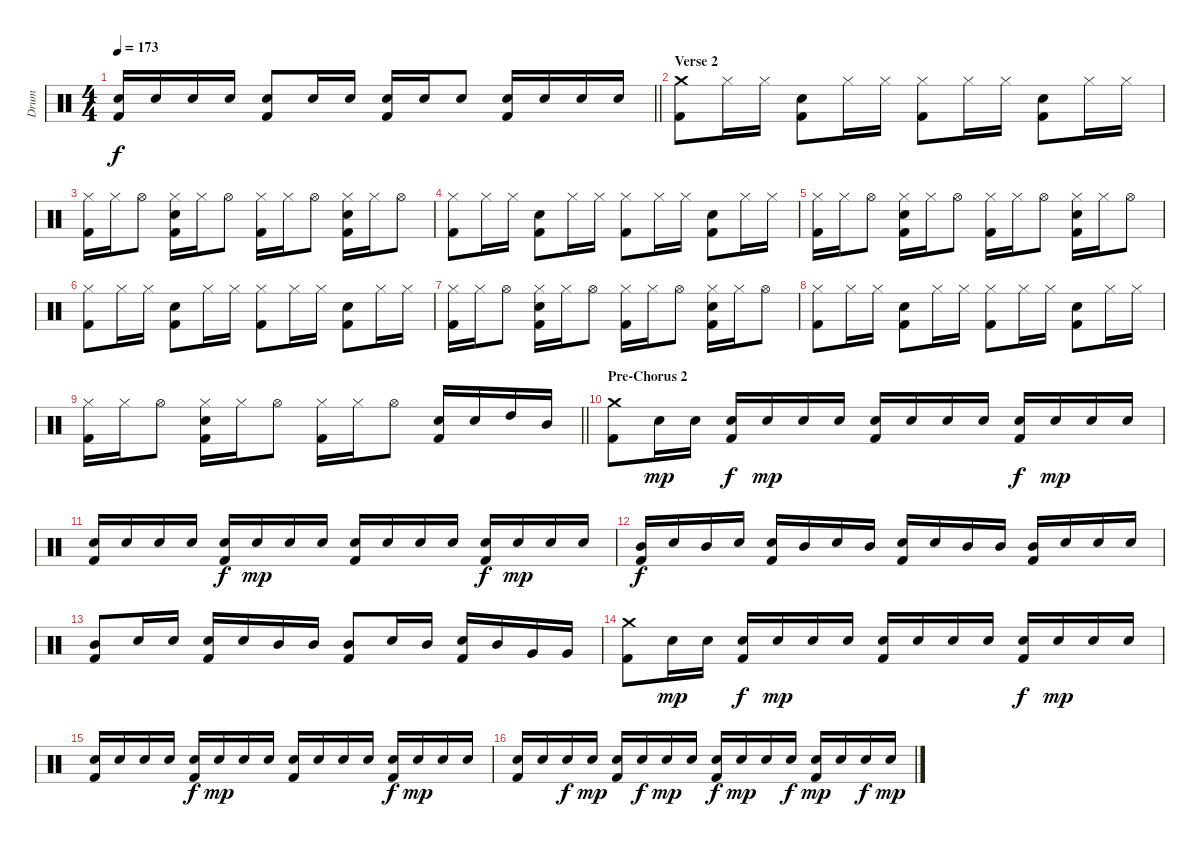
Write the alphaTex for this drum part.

\track ("Drum" "Drum") {instrument percussion}
\staff {score}
\articulation defaults
\ts (4 4)
\tempo 173
\clef neutral
\barLineRight lightlight
\ks c
("Kick (hit) 2" "Snare (hit) 2").16{dy f} "Snare (hit) 2".16 "Snare (hit) 2".16 "Snare (hit) 2".16 ("Kick (hit) 2" "Snare (hit) 2").8 "Snare (hit) 2".16 "Snare (hit) 2".16 ("Kick (hit) 2" "Snare (hit) 2").16 "Snare (hit) 2".16 "Snare (hit) 2".8 ("Kick (hit) 2" "Snare (hit) 2").16 "Snare (hit) 2".16 "Snare (hit) 2".16 "Snare (hit) 2".16 |
\section ("" "Verse 2")
("Crash medium (hit)" "Kick (hit) 2").8 "Hi-Hat (closed)".16 "Hi-Hat (closed)".16 ("Kick (hit) 2" "Snare (hit) 2").8 "Hi-Hat (closed)".16 "Hi-Hat (closed)".16 ("Hi-Hat (closed)" "Kick (hit) 2").8 "Hi-Hat (closed)".16 "Hi-Hat (closed)".16 ("Kick (hit) 2" "Snare (hit) 2").8 "Hi-Hat (closed)".16 "Hi-Hat (closed)".16 |
("Hi-Hat (closed)" "Kick (hit) 2").16 "Hi-Hat (closed)".16 "Hi-Hat (open)".8 ("Hi-Hat (closed)" "Kick (hit) 2" "Snare (hit) 2").16 "Hi-Hat (closed)".16 "Hi-Hat (open)".8 ("Hi-Hat (closed)" "Kick (hit) 2").16 "Hi-Hat (closed)".16 "Hi-Hat (open)".8 ("Hi-Hat (closed)" "Kick (hit) 2" "Snare (hit) 2").16 "Hi-Hat (closed)".16 "Hi-Hat (open)".8 |
("Hi-Hat (closed)" "Kick (hit) 2").8 "Hi-Hat (closed)".16 "Hi-Hat (closed)".16 ("Kick (hit) 2" "Snare (hit) 2").8 "Hi-Hat (closed)".16 "Hi-Hat (closed)".16 ("Hi-Hat (closed)" "Kick (hit) 2").8 "Hi-Hat (closed)".16 "Hi-Hat (closed)".16 ("Kick (hit) 2" "Snare (hit) 2").8 "Hi-Hat (closed)".16 "Hi-Hat (closed)".16 |
("Hi-Hat (closed)" "Kick (hit) 2").16 "Hi-Hat (closed)".16 "Hi-Hat (open)".8 ("Hi-Hat (closed)" "Kick (hit) 2" "Snare (hit) 2").16 "Hi-Hat (closed)".16 "Hi-Hat (open)".8 ("Hi-Hat (closed)" "Kick (hit) 2").16 "Hi-Hat (closed)".16 "Hi-Hat (open)".8 ("Hi-Hat (closed)" "Kick (hit) 2" "Snare (hit) 2").16 "Hi-Hat (closed)".16 "Hi-Hat (open)".8 |
("Hi-Hat (closed)" "Kick (hit) 2").8 "Hi-Hat (closed)".16 "Hi-Hat (closed)".16 ("Kick (hit) 2" "Snare (hit) 2").8 "Hi-Hat (closed)".16 "Hi-Hat (closed)".16 ("Hi-Hat (closed)" "Kick (hit) 2").8 "Hi-Hat (closed)".16 "Hi-Hat (closed)".16 ("Kick (hit) 2" "Snare (hit) 2").8 "Hi-Hat (closed)".16 "Hi-Hat (closed)".16 |
("Hi-Hat (closed)" "Kick (hit) 2").16 "Hi-Hat (closed)".16 "Hi-Hat (open)".8 ("Hi-Hat (closed)" "Kick (hit) 2" "Snare (hit) 2").16 "Hi-Hat (closed)".16 "Hi-Hat (open)".8 ("Hi-Hat (closed)" "Kick (hit) 2").16 "Hi-Hat (closed)".16 "Hi-Hat (open)".8 ("Hi-Hat (closed)" "Kick (hit) 2" "Snare (hit) 2").16 "Hi-Hat (closed)".16 "Hi-Hat (open)".8 |
("Hi-Hat (closed)" "Kick (hit) 2").8 "Hi-Hat (closed)".16 "Hi-Hat (closed)".16 ("Kick (hit) 2" "Snare (hit) 2").8 "Hi-Hat (closed)".16 "Hi-Hat (closed)".16 ("Hi-Hat (closed)" "Kick (hit) 2").8 "Hi-Hat (closed)".16 "Hi-Hat (closed)".16 ("Kick (hit) 2" "Snare (hit) 2").8 "Hi-Hat (closed)".16 "Hi-Hat (closed)".16 |
\barLineRight lightlight
("Hi-Hat (closed)" "Kick (hit) 2").16 "Hi-Hat (closed)".16 "Hi-Hat (open)".8 ("Hi-Hat (closed)" "Kick (hit) 2" "Snare (hit) 2").16 "Hi-Hat (closed)".16 "Hi-Hat (open)".8 ("Hi-Hat (closed)" "Kick (hit) 2").16 "Hi-Hat (closed)".16 "Hi-Hat (open)".8 ("Snare (hit) 2" "Kick (hit) 2").16 "Snare (hit) 2".16 "High Tom (hit)".16 "Mid Tom (hit)".16 |
\section ("" "Pre-Chorus 2")
("Crash medium (hit)" "Kick (hit) 2").8 "Snare (hit) 2".16{dy mp} "Snare (hit) 2".16 ("Snare (hit) 2" "Kick (hit) 2").16{dy f} "Snare (hit) 2".16{dy mp} "Snare (hit) 2".16 "Snare (hit) 2".16 ("Snare (hit) 2" "Kick (hit) 2").16 "Snare (hit) 2".16 "Snare (hit) 2".16 "Snare (hit) 2".16 ("Snare (hit) 2" "Kick (hit) 2").16{dy f} "Snare (hit) 2".16{dy mp} "Snare (hit) 2".16 "Snare (hit) 2".16 |
("Snare (hit) 2" "Kick (hit) 2").16 "Snare (hit) 2".16 "Snare (hit) 2".16 "Snare (hit) 2".16 ("Snare (hit) 2" "Kick (hit) 2").16{dy f} "Snare (hit) 2".16{dy mp} "Snare (hit) 2".16 "Snare (hit) 2".16 ("Snare (hit) 2" "Kick (hit) 2").16 "Snare (hit) 2".16 "Snare (hit) 2".16 "Snare (hit) 2".16 ("Snare (hit) 2" "Kick (hit) 2").16{dy f} "Snare (hit) 2".16{dy mp} "Snare (hit) 2".16 "Snare (hit) 2".16 |
("Kick (hit) 2" "Mid Tom (hit)").16{dy f} "Snare (hit) 2".16 "Mid Tom (hit)".16 "Snare (hit) 2".16 ("Kick (hit) 2" "Snare (hit) 2").16 "Mid Tom (hit)".16 "Snare (hit) 2".16 "Mid Tom (hit)".16 ("Kick (hit) 2" "Snare (hit) 2").16 "Snare (hit) 2".16 "Mid Tom (hit)".16 "Mid Tom (hit)".16 ("Kick (hit) 2" "Mid Tom (hit)").16 "Snare (hit) 2".16 "Snare (hit) 2".16 "Snare (hit) 2".16 |
("Mid Tom (hit)" "Kick (hit) 2").8 "Snare (hit) 2".16 "Snare (hit) 2".16 ("Snare (hit) 2" "Kick (hit) 2").16 "Snare (hit) 2".16 "Mid Tom (hit)".16 "Mid Tom (hit)".16 ("Mid Tom (hit)" "Kick (hit) 2").8 "Snare (hit) 2".16 "Mid Tom (hit)".16 ("Snare (hit) 2" "Kick (hit) 2").16 "Mid Tom (hit)".16 "Very Low Tom (hit)".16 "Very Low Tom (hit)".16 |
("Crash medium (hit)" "Kick (hit) 2").8 "Snare (hit) 2".16{dy mp} "Snare (hit) 2".16 ("Snare (hit) 2" "Kick (hit) 2").16{dy f} "Snare (hit) 2".16{dy mp} "Snare (hit) 2".16 "Snare (hit) 2".16 ("Snare (hit) 2" "Kick (hit) 2").16 "Snare (hit) 2".16 "Snare (hit) 2".16 "Snare (hit) 2".16 ("Snare (hit) 2" "Kick (hit) 2").16{dy f} "Snare (hit) 2".16{dy mp} "Snare (hit) 2".16 "Snare (hit) 2".16 |
("Snare (hit) 2" "Kick (hit) 2").16 "Snare (hit) 2".16 "Snare (hit) 2".16 "Snare (hit) 2".16 ("Snare (hit) 2" "Kick (hit) 2").16{dy f} "Snare (hit) 2".16{dy mp} "Snare (hit) 2".16 "Snare (hit) 2".16 ("Snare (hit) 2" "Kick (hit) 2").16 "Snare (hit) 2".16 "Snare (hit) 2".16 "Snare (hit) 2".16 ("Snare (hit) 2" "Kick (hit) 2").16{dy f} "Snare (hit) 2".16{dy mp} "Snare (hit) 2".16 "Snare (hit) 2".16 |
("Snare (hit) 2" "Kick (hit) 2").16 "Snare (hit) 2".16 "Snare (hit) 2".16{dy f} "Snare (hit) 2".16{dy mp} ("Snare (hit) 2" "Kick (hit) 2").16 "Snare (hit) 2".16{dy f} "Snare (hit) 2".16{dy mp} "Snare (hit) 2".16 ("Snare (hit) 2" "Kick (hit) 2").16{dy f} "Snare (hit) 2".16{dy mp} "Snare (hit) 2".16 "Snare (hit) 2".16{dy f} ("Snare (hit) 2" "Kick (hit) 2").16{dy mp} "Snare (hit) 2".16 "Snare (hit) 2".16{dy f} "Snare (hit) 2".16{dy mp}
